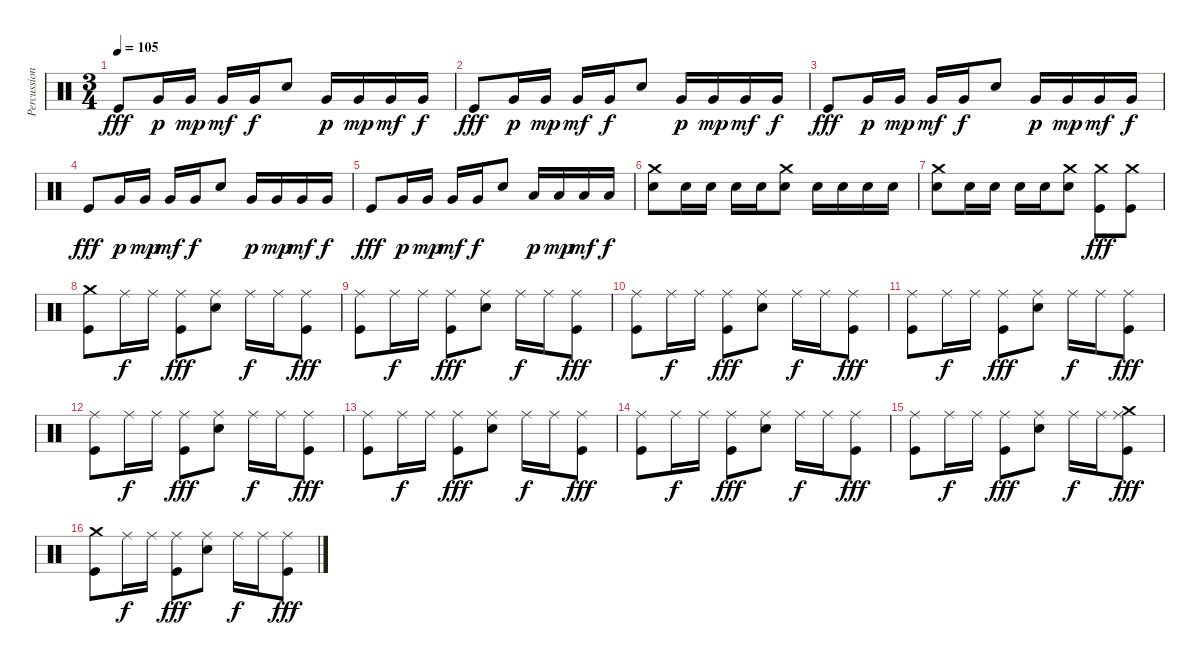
\track ("Percussions" "Percussion") {instrument percussion}
\staff {score}
\articulation defaults
\ts (3 4)
\tempo 105
\clef neutral
\ks c "Kick (hit)".8{dy fff} "Very Low Tom (hit)".16{dy p} "Very Low Tom (hit)".16{dy mp} "Very Low Tom (hit)".16{dy mf} "Very Low Tom (hit)".16{dy f} "Snare (hit) 2".8 "Very Low Tom (hit)".16{dy p} "Very Low Tom (hit)".16{dy mp} "Very Low Tom (hit)".16{dy mf} "Very Low Tom (hit)".16{dy f}
|
"Kick (hit)".8{dy fff} "Very Low Tom (hit)".16{dy p} "Very Low Tom (hit)".16{dy mp} "Very Low Tom (hit)".16{dy mf} "Very Low Tom (hit)".16{dy f} "Snare (hit) 2".8 "Very Low Tom (hit)".16{dy p} "Very Low Tom (hit)".16{dy mp} "Very Low Tom (hit)".16{dy mf} "Very Low Tom (hit)".16{dy f} |
"Kick (hit)".8{dy fff} "Very Low Tom (hit)".16{dy p} "Very Low Tom (hit)".16{dy mp} "Very Low Tom (hit)".16{dy mf} "Very Low Tom (hit)".16{dy f} "Snare (hit) 2".8 "Very Low Tom (hit)".16{dy p} "Very Low Tom (hit)".16{dy mp} "Very Low Tom (hit)".16{dy mf} "Very Low Tom (hit)".16{dy f} |
"Kick (hit)".8{dy fff} "Very Low Tom (hit)".16{dy p} "Very Low Tom (hit)".16{dy mp} "Very Low Tom (hit)".16{dy mf} "Very Low Tom (hit)".16{dy f} "Snare (hit) 2".8 "Very Low Tom (hit)".16{dy p} "Very Low Tom (hit)".16{dy mp} "Very Low Tom (hit)".16{dy mf} "Very Low Tom (hit)".16{dy f} |
"Kick (hit)".8{dy fff} "Very Low Tom (hit)".16{dy p} "Very Low Tom (hit)".16{dy mp} "Very Low Tom (hit)".16{dy mf} "Very Low Tom (hit)".16{dy f} "Snare (hit) 2".8 "Low Tom (hit)".16{dy p} "Low Tom (hit)".16{dy mp} "Low Tom (hit)".16{dy mf} "Low Tom (hit)".16{dy f} |
("Crash medium (hit)" "Snare (hit) 2").8 "Snare (hit) 2".16 "Snare (hit) 2".16 "Snare (hit) 2".16 "Snare (hit) 2".16 ("Crash medium (hit)" "Snare (hit) 2").8 "Snare (hit) 2".16 "Snare (hit) 2".16 "Snare (hit) 2".16 "Snare (hit) 2".16 |
("Crash medium (hit)" "Snare (hit) 2").8 "Snare (hit) 2".16 "Snare (hit) 2".16 "Snare (hit) 2".16 "Snare (hit) 2".16 ("Crash medium (hit)" "Snare (hit) 2").8 ("Crash medium (hit)" "Kick (hit)").8{dy fff} ("Crash medium (hit)" "Kick (hit)").8 |
("Crash medium (hit)" "Kick (hit)").8 "Ride (middle)".16{dy f} "Ride (middle)".16 ("Ride (middle)" "Kick (hit)").8{dy fff} ("Ride (middle)" "Snare (hit) 2").8 "Ride (middle)".16{dy f} "Ride (middle)".16 ("Ride (middle)" "Kick (hit)").8{dy fff} |
("Ride (middle)" "Kick (hit)").8 "Ride (middle)".16{dy f} "Ride (middle)".16 ("Ride (middle)" "Kick (hit)").8{dy fff} ("Ride (middle)" "Snare (hit) 2").8 "Ride (middle)".16{dy f} "Ride (middle)".16 ("Ride (middle)" "Kick (hit)").8{dy fff} |
("Ride (middle)" "Kick (hit)").8 "Ride (middle)".16{dy f} "Ride (middle)".16 ("Ride (middle)" "Kick (hit)").8{dy fff} ("Ride (middle)" "Snare (hit) 2").8 "Ride (middle)".16{dy f} "Ride (middle)".16 ("Ride (middle)" "Kick (hit)").8{dy fff} |
("Ride (middle)" "Kick (hit)").8 "Ride (middle)".16{dy f} "Ride (middle)".16 ("Ride (middle)" "Kick (hit)").8{dy fff} ("Ride (middle)" "Snare (hit) 2").8 "Ride (middle)".16{dy f} "Ride (middle)".16 ("Ride (middle)" "Kick (hit)").8{dy fff} |
("Ride (middle)" "Kick (hit)").8 "Ride (middle)".16{dy f} "Ride (middle)".16 ("Ride (middle)" "Kick (hit)").8{dy fff} ("Ride (middle)" "Snare (hit) 2").8 "Ride (middle)".16{dy f} "Ride (middle)".16 ("Ride (middle)" "Kick (hit)").8{dy fff} |
("Ride (middle)" "Kick (hit)").8 "Ride (middle)".16{dy f} "Ride (middle)".16 ("Ride (middle)" "Kick (hit)").8{dy fff} ("Ride (middle)" "Snare (hit) 2").8 "Ride (middle)".16{dy f} "Ride (middle)".16 ("Ride (middle)" "Kick (hit)").8{dy fff} |
("Ride (middle)" "Kick (hit)").8 "Ride (middle)".16{dy f} "Ride (middle)".16 ("Ride (middle)" "Kick (hit)").8{dy fff} ("Ride (middle)" "Snare (hit) 2").8 "Ride (middle)".16{dy f} "Ride (middle)".16 ("Ride (middle)" "Kick (hit)").8{dy fff} |
("Ride (middle)" "Kick (hit)").8 "Ride (middle)".16{dy f} "Ride (middle)".16 ("Ride (middle)" "Kick (hit)").8{dy fff} ("Ride (middle)" "Snare (hit) 2").8 "Ride (middle)".16{dy f} "Ride (middle)".16 ("Crash medium (hit)" "Ride (middle)" "Kick (hit)").8{dy fff} |
("Crash medium (hit)" "Kick (hit)").8 "Ride (middle)".16{dy f} "Ride (middle)".16 ("Ride (middle)" "Kick (hit)").8{dy fff} ("Ride (middle)" "Snare (hit) 2").8 "Ride (middle)".16{dy f} "Ride (middle)".16 ("Ride (middle)" "Kick (hit)").8{dy fff}
